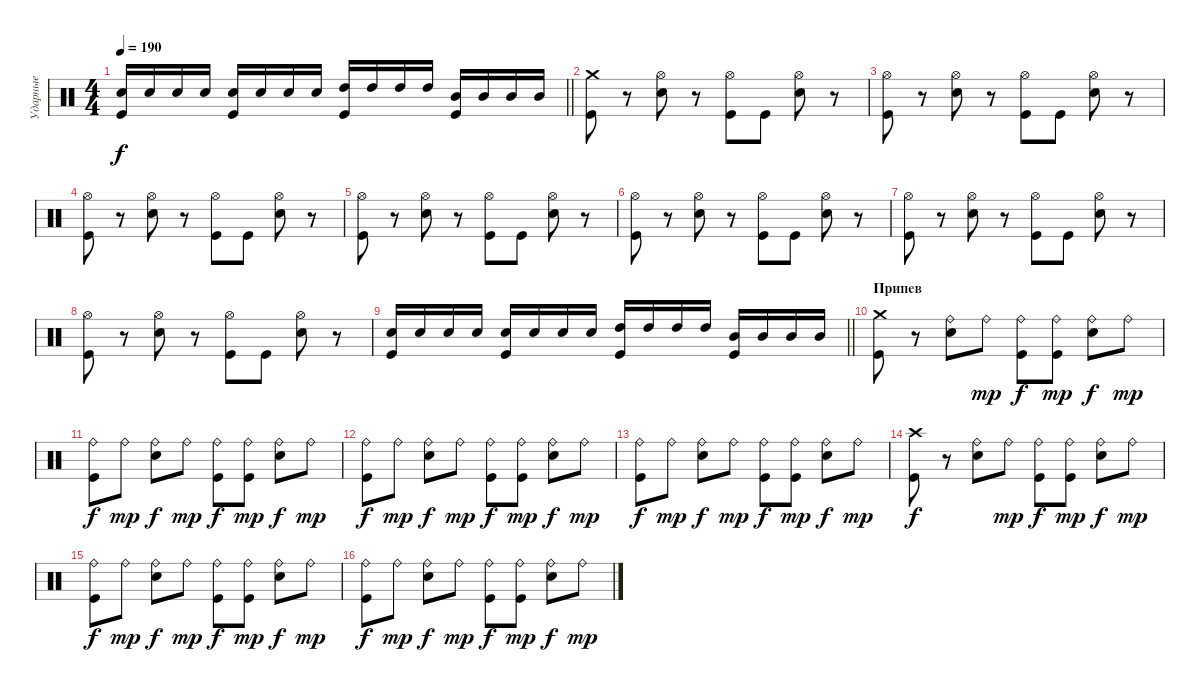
\track ("Ударные" "Ударные") {instrument percussion}
\staff {score}
\articulation defaults
\ts (4 4)
\tempo 190
\clef neutral
\barLineRight lightlight
\ks c
("Electric Snare (hit)" "Kick (hit)").16{dy f} "Electric Snare (hit)".16 "Electric Snare (hit)".16 "Electric Snare (hit)".16 ("Electric Snare (hit)" "Kick (hit)").16 "Electric Snare (hit)".16 "Electric Snare (hit)".16 "Electric Snare (hit)".16 ("High Tom (hit)" "Kick (hit)").16 "High Tom (hit)".16 "High Tom (hit)".16 "High Tom (hit)".16 ("Mid Tom (hit)" "Kick (hit)").16 "Mid Tom (hit)".16 "Mid Tom (hit)".16 "Mid Tom (hit)".16 |
\section ("" " ")
("Crash medium (hit)" "Kick (hit)").8 r.8 ("Hi-Hat (open)" "Electric Snare (hit)").8 r.8 ("Hi-Hat (open)" "Kick (hit)").8 "Kick (hit)".8 ("Hi-Hat (open)" "Electric Snare (hit)").8 r.8 |
("Hi-Hat (open)" "Kick (hit)").8 r.8 ("Hi-Hat (open)" "Electric Snare (hit)").8 r.8 ("Hi-Hat (open)" "Kick (hit)").8 "Kick (hit)".8 ("Hi-Hat (open)" "Electric Snare (hit)").8 r.8 |
("Hi-Hat (open)" "Kick (hit)").8 r.8 ("Hi-Hat (open)" "Electric Snare (hit)").8 r.8 ("Hi-Hat (open)" "Kick (hit)").8 "Kick (hit)".8 ("Hi-Hat (open)" "Electric Snare (hit)").8 r.8 |
("Hi-Hat (open)" "Kick (hit)").8 r.8 ("Hi-Hat (open)" "Electric Snare (hit)").8 r.8 ("Hi-Hat (open)" "Kick (hit)").8 "Kick (hit)".8 ("Hi-Hat (open)" "Electric Snare (hit)").8 r.8 |
("Hi-Hat (open)" "Kick (hit)").8 r.8 ("Hi-Hat (open)" "Electric Snare (hit)").8 r.8 ("Hi-Hat (open)" "Kick (hit)").8 "Kick (hit)".8 ("Hi-Hat (open)" "Electric Snare (hit)").8 r.8 |
("Hi-Hat (open)" "Kick (hit)").8 r.8 ("Hi-Hat (open)" "Electric Snare (hit)").8 r.8 ("Hi-Hat (open)" "Kick (hit)").8 "Kick (hit)".8 ("Hi-Hat (open)" "Electric Snare (hit)").8 r.8 |
("Hi-Hat (open)" "Kick (hit)").8 r.8 ("Hi-Hat (open)" "Electric Snare (hit)").8 r.8 ("Hi-Hat (open)" "Kick (hit)").8 "Kick (hit)".8 ("Hi-Hat (open)" "Electric Snare (hit)").8 r.8 |
\barLineRight lightlight
("Electric Snare (hit)" "Kick (hit)").16 "Electric Snare (hit)".16 "Electric Snare (hit)".16 "Electric Snare (hit)".16 ("Electric Snare (hit)" "Kick (hit)").16 "Electric Snare (hit)".16 "Electric Snare (hit)".16 "Electric Snare (hit)".16 ("High Tom (hit)" "Kick (hit)").16 "High Tom (hit)".16 "High Tom (hit)".16 "High Tom (hit)".16 ("Mid Tom (hit)" "Kick (hit)").16 "Mid Tom (hit)".16 "Mid Tom (hit)".16 "Mid Tom (hit)".16 |
\section ("" "Припев")
("Crash medium (hit)" "Kick (hit)").8 r.8 ("Ride (bell)" "Electric Snare (hit)").8 "Ride (bell)".8{dy mp} ("Ride (bell)" "Kick (hit)").8{dy f} ("Ride (bell)" "Kick (hit)").8{dy mp} ("Ride (bell)" "Electric Snare (hit)").8{dy f} "Ride (bell)".8{dy mp} |
("Ride (bell)" "Kick (hit)").8{dy f} "Ride (bell)".8{dy mp} ("Ride (bell)" "Electric Snare (hit)").8{dy f} "Ride (bell)".8{dy mp} ("Ride (bell)" "Kick (hit)").8{dy f} ("Ride (bell)" "Kick (hit)").8{dy mp} ("Ride (bell)" "Electric Snare (hit)").8{dy f} "Ride (bell)".8{dy mp} |
("Ride (bell)" "Kick (hit)").8{dy f} "Ride (bell)".8{dy mp} ("Ride (bell)" "Electric Snare (hit)").8{dy f} "Ride (bell)".8{dy mp} ("Ride (bell)" "Kick (hit)").8{dy f} ("Ride (bell)" "Kick (hit)").8{dy mp} ("Ride (bell)" "Electric Snare (hit)").8{dy f} "Ride (bell)".8{dy mp} |
("Ride (bell)" "Kick (hit)").8{dy f} "Ride (bell)".8{dy mp} ("Ride (bell)" "Electric Snare (hit)").8{dy f} "Ride (bell)".8{dy mp} ("Ride (bell)" "Kick (hit)").8{dy f} ("Ride (bell)" "Kick (hit)").8{dy mp} ("Ride (bell)" "Electric Snare (hit)").8{dy f} "Ride (bell)".8{dy mp} |
("Crash high (hit)" "Kick (hit)").8{dy f} r.8 ("Ride (bell)" "Electric Snare (hit)").8 "Ride (bell)".8{dy mp} ("Ride (bell)" "Kick (hit)").8{dy f} ("Ride (bell)" "Kick (hit)").8{dy mp} ("Ride (bell)" "Electric Snare (hit)").8{dy f} "Ride (bell)".8{dy mp} |
("Ride (bell)" "Kick (hit)").8{dy f} "Ride (bell)".8{dy mp} ("Ride (bell)" "Electric Snare (hit)").8{dy f} "Ride (bell)".8{dy mp} ("Ride (bell)" "Kick (hit)").8{dy f} ("Ride (bell)" "Kick (hit)").8{dy mp} ("Ride (bell)" "Electric Snare (hit)").8{dy f} "Ride (bell)".8{dy mp} |
("Ride (bell)" "Kick (hit)").8{dy f} "Ride (bell)".8{dy mp} ("Ride (bell)" "Electric Snare (hit)").8{dy f} "Ride (bell)".8{dy mp} ("Ride (bell)" "Kick (hit)").8{dy f} ("Ride (bell)" "Kick (hit)").8{dy mp} ("Ride (bell)" "Electric Snare (hit)").8{dy f} "Ride (bell)".8{dy mp}
